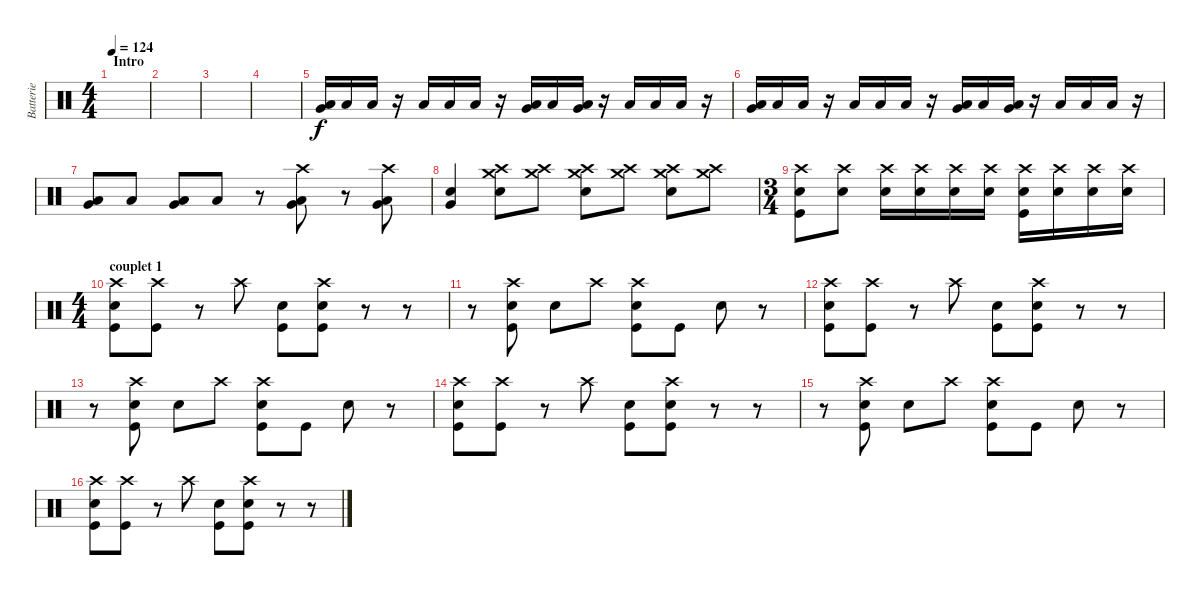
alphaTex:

\track ("Batterie" "Batterie") {instrument percussion}
\staff {score}
\articulation defaults
\ts (4 4)
\section ("" "Intro")
\tempo 124
\clef neutral
\ks c
|
|
|
|
("Low Tom (hit)" "Very Low Tom (hit)").16 "Low Tom (hit)".16 "Low Tom (hit)".16 r.16 "Low Tom (hit)".16 "Low Tom (hit)".16 "Low Tom (hit)".16 r.16 ("Low Tom (hit)" "Very Low Tom (hit)").16 "Low Tom (hit)".16 ("Low Tom (hit)" "Very Low Tom (hit)").16 r.16 "Low Tom (hit)".16 "Low Tom (hit)".16 "Low Tom (hit)".16 r.16 |
("Low Tom (hit)" "Very Low Tom (hit)").16 "Low Tom (hit)".16 "Low Tom (hit)".16 r.16 "Low Tom (hit)".16 "Low Tom (hit)".16 "Low Tom (hit)".16 r.16 ("Low Tom (hit)" "Very Low Tom (hit)").16 "Low Tom (hit)".16 ("Low Tom (hit)" "Very Low Tom (hit)").16 r.16 "Low Tom (hit)".16 "Low Tom (hit)".16 "Low Tom (hit)".16 r.16 |
("Low Tom (hit)" "Very Low Tom (hit)").8 "Low Tom (hit)".8 ("Low Tom (hit)" "Very Low Tom (hit)").8 "Low Tom (hit)".8 r.8 ("Crash high (hit)" "Low Tom (hit)" "Very Low Tom (hit)").8 r.8 ("Crash high (hit)" "Low Tom (hit)" "Very Low Tom (hit)").8 |
("Snare (hit) 2" "Very Low Tom (hit)").4 ("Crash high (hit)" "Crash medium (hit)" "Snare (hit) 2").8 ("Crash high (hit)" "Crash medium (hit)").8 ("Crash high (hit)" "Crash medium (hit)" "Snare (hit) 2").8 ("Crash high (hit)" "Crash medium (hit)").8 ("Crash high (hit)" "Crash medium (hit)" "Snare (hit) 2").8 ("Crash high (hit)" "Crash medium (hit)").8 |
\ts (3 4)
("Crash high (hit)" "Snare (hit) 2" "Kick (hit)").8 ("Crash high (hit)" "Snare (hit) 2").8 ("Crash high (hit)" "Snare (hit) 2").16 ("Crash high (hit)" "Snare (hit) 2").16 ("Crash high (hit)" "Snare (hit) 2").16 ("Crash high (hit)" "Snare (hit) 2").16 ("Crash high (hit)" "Snare (hit) 2" "Kick (hit)").16 ("Crash high (hit)" "Snare (hit) 2").16 ("Crash high (hit)" "Snare (hit) 2").16 ("Crash high (hit)" "Snare (hit) 2").16 |
\ts (4 4)
\section ("" "couplet 1")
("Crash high (hit)" "Snare (hit) 2" "Kick (hit)").8 ("Crash high (hit)" "Kick (hit)").8 r.8 "Crash high (hit)".8 ("Snare (hit) 2" "Kick (hit)").8 ("Crash high (hit)" "Snare (hit) 2" "Kick (hit)").8 r.8 r.8 |
r.8 ("Crash high (hit)" "Snare (hit) 2" "Kick (hit)").8 "Snare (hit) 2".8 "Crash high (hit)".8 ("Crash high (hit)" "Snare (hit) 2" "Kick (hit)").8 "Kick (hit)".8 "Snare (hit) 2".8 r.8 |
("Crash high (hit)" "Snare (hit) 2" "Kick (hit)").8 ("Crash high (hit)" "Kick (hit)").8 r.8 "Crash high (hit)".8 ("Snare (hit) 2" "Kick (hit)").8 ("Crash high (hit)" "Snare (hit) 2" "Kick (hit)").8 r.8 r.8 |
r.8 ("Crash high (hit)" "Snare (hit) 2" "Kick (hit)").8 "Snare (hit) 2".8 "Crash high (hit)".8 ("Crash high (hit)" "Snare (hit) 2" "Kick (hit)").8 "Kick (hit)".8 "Snare (hit) 2".8 r.8 |
("Crash high (hit)" "Snare (hit) 2" "Kick (hit)").8 ("Crash high (hit)" "Kick (hit)").8 r.8 "Crash high (hit)".8 ("Snare (hit) 2" "Kick (hit)").8 ("Crash high (hit)" "Snare (hit) 2" "Kick (hit)").8 r.8 r.8 |
r.8 ("Crash high (hit)" "Snare (hit) 2" "Kick (hit)").8 "Snare (hit) 2".8 "Crash high (hit)".8 ("Crash high (hit)" "Snare (hit) 2" "Kick (hit)").8 "Kick (hit)".8 "Snare (hit) 2".8 r.8 |
("Crash high (hit)" "Snare (hit) 2" "Kick (hit)").8 ("Crash high (hit)" "Kick (hit)").8 r.8 "Crash high (hit)".8 ("Snare (hit) 2" "Kick (hit)").8 ("Crash high (hit)" "Snare (hit) 2" "Kick (hit)").8 r.8 r.8
